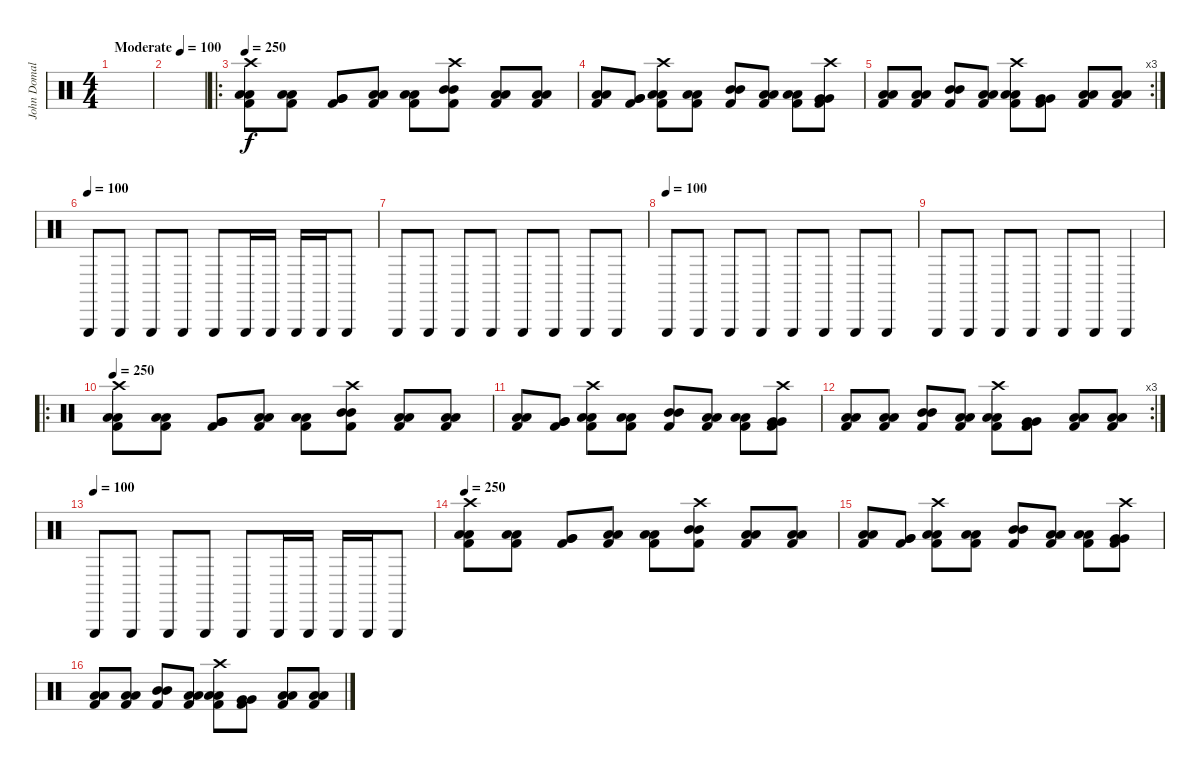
\track ("John Domalayan" "John Domal") {instrument percussion}
\staff {score}
\articulation defaults
\ts (4 4)
\tempo (100 "Moderate")
\clef neutral
\ks c
|
|
\ro
\tempo 250
("Crash high (hit)" "Low Floor Tom (hit)" "Low Floor Tom (hit)" "Kick (hit) 2").8 ("Low Floor Tom (hit)" "Low Floor Tom (hit)" "Kick (hit) 2").8 ("Very Low Tom (hit)" "Very Low Tom (hit)" "Kick (hit) 2").8 ("Low Tom (hit)" "Low Tom (hit)" "Kick (hit) 2").8 ("Low Tom (hit)" "Low Tom (hit)" "Kick (hit) 2").8 ("Crash high (hit)" "Mid Tom (hit)" "Mid Tom (hit)" "Kick (hit) 2").8 ("Low Floor Tom (hit)" "Low Floor Tom (hit)" "Kick (hit) 2").8 ("Low Floor Tom (hit)" "Low Floor Tom (hit)" "Kick (hit) 2").8 |
("Low Floor Tom (hit)" "Low Floor Tom (hit)" "Kick (hit) 2").8 ("Very Low Tom (hit)" "Very Low Tom (hit)" "Kick (hit) 2").8 ("Crash high (hit)" "Low Tom (hit)" "Low Tom (hit)" "Kick (hit) 2").8 ("Low Tom (hit)" "Low Tom (hit)" "Kick (hit) 2").8 ("Mid Tom (hit)" "Mid Tom (hit)" "Kick (hit) 2").8 ("Low Floor Tom (hit)" "Low Floor Tom (hit)" "Kick (hit) 2").8 ("Low Floor Tom (hit)" "Low Floor Tom (hit)" "Kick (hit) 2").8 ("Crash high (hit)" "Very Low Tom (hit)" "Very Low Tom (hit)" "Kick (hit) 2").8 |
\rc 3
("Low Tom (hit)" "Low Tom (hit)" "Kick (hit) 2").8 ("Low Tom (hit)" "Low Tom (hit)" "Kick (hit) 2").8 ("Mid Tom (hit)" "Mid Tom (hit)" "Kick (hit) 2").8 ("Low Floor Tom (hit)" "Low Floor Tom (hit)" "Kick (hit) 2").8 ("Crash high (hit)" "Low Floor Tom (hit)" "Low Floor Tom (hit)" "Kick (hit) 2").8 ("Very Low Tom (hit)" "Very Low Tom (hit)" "Kick (hit) 2").8 ("Low Tom (hit)" "Low Tom (hit)" "Kick (hit) 2").8 ("Low Tom (hit)" "Low Tom (hit)" "Kick (hit) 2").8 |
\tempo (100)
"Triangle (hit)".8 "Triangle (hit)".8 "Triangle (hit)".8 "Triangle (hit)".8 "Triangle (hit)".8 "Triangle (hit)".16 "Triangle (hit)".16 "Triangle (hit)".16 "Triangle (hit)".16 "Triangle (hit)".8 |
"Triangle (hit)".8 "Triangle (hit)".8 "Triangle (hit)".8 "Triangle (hit)".8 "Triangle (hit)".8 "Triangle (hit)".8 "Triangle (hit)".8 "Triangle (hit)".8 |
\tempo (100)
"Triangle (hit)".8 "Triangle (hit)".8 "Triangle (hit)".8 "Triangle (hit)".8 "Triangle (hit)".8 "Triangle (hit)".8 "Triangle (hit)".8 "Triangle (hit)".8 |
"Triangle (hit)".8 "Triangle (hit)".8 "Triangle (hit)".8 "Triangle (hit)".8 "Triangle (hit)".8 "Triangle (hit)".8 "Triangle (hit)".4 |
\ro
\tempo 250
("Crash high (hit)" "Low Floor Tom (hit)" "Low Floor Tom (hit)" "Kick (hit) 2").8 ("Low Floor Tom (hit)" "Low Floor Tom (hit)" "Kick (hit) 2").8 ("Very Low Tom (hit)" "Very Low Tom (hit)" "Kick (hit) 2").8 ("Low Tom (hit)" "Low Tom (hit)" "Kick (hit) 2").8 ("Low Tom (hit)" "Low Tom (hit)" "Kick (hit) 2").8 ("Crash high (hit)" "Mid Tom (hit)" "Mid Tom (hit)" "Kick (hit) 2").8 ("Low Floor Tom (hit)" "Low Floor Tom (hit)" "Kick (hit) 2").8 ("Low Floor Tom (hit)" "Low Floor Tom (hit)" "Kick (hit) 2").8 |
("Low Floor Tom (hit)" "Low Floor Tom (hit)" "Kick (hit) 2").8 ("Very Low Tom (hit)" "Very Low Tom (hit)" "Kick (hit) 2").8 ("Crash high (hit)" "Low Tom (hit)" "Low Tom (hit)" "Kick (hit) 2").8 ("Low Tom (hit)" "Low Tom (hit)" "Kick (hit) 2").8 ("Mid Tom (hit)" "Mid Tom (hit)" "Kick (hit) 2").8 ("Low Floor Tom (hit)" "Low Floor Tom (hit)" "Kick (hit) 2").8 ("Low Floor Tom (hit)" "Low Floor Tom (hit)" "Kick (hit) 2").8 ("Crash high (hit)" "Very Low Tom (hit)" "Very Low Tom (hit)" "Kick (hit) 2").8 |
\rc 3
("Low Tom (hit)" "Low Tom (hit)" "Kick (hit) 2").8 ("Low Tom (hit)" "Low Tom (hit)" "Kick (hit) 2").8 ("Mid Tom (hit)" "Mid Tom (hit)" "Kick (hit) 2").8 ("Low Floor Tom (hit)" "Low Floor Tom (hit)" "Kick (hit) 2").8 ("Crash high (hit)" "Low Floor Tom (hit)" "Low Floor Tom (hit)" "Kick (hit) 2").8 ("Very Low Tom (hit)" "Very Low Tom (hit)" "Kick (hit) 2").8 ("Low Tom (hit)" "Low Tom (hit)" "Kick (hit) 2").8 ("Low Tom (hit)" "Low Tom (hit)" "Kick (hit) 2").8 |
\tempo (100)
"Triangle (hit)".8 "Triangle (hit)".8 "Triangle (hit)".8 "Triangle (hit)".8 "Triangle (hit)".8 "Triangle (hit)".16 "Triangle (hit)".16 "Triangle (hit)".16 "Triangle (hit)".16 "Triangle (hit)".8 |
\tempo 250
("Crash high (hit)" "Low Floor Tom (hit)" "Low Floor Tom (hit)" "Kick (hit) 2").8 ("Low Floor Tom (hit)" "Low Floor Tom (hit)" "Kick (hit) 2").8 ("Very Low Tom (hit)" "Very Low Tom (hit)" "Kick (hit) 2").8 ("Low Tom (hit)" "Low Tom (hit)" "Kick (hit) 2").8 ("Low Tom (hit)" "Low Tom (hit)" "Kick (hit) 2").8 ("Crash high (hit)" "Mid Tom (hit)" "Mid Tom (hit)" "Kick (hit) 2").8 ("Low Floor Tom (hit)" "Low Floor Tom (hit)" "Kick (hit) 2").8 ("Low Floor Tom (hit)" "Low Floor Tom (hit)" "Kick (hit) 2").8 |
("Low Floor Tom (hit)" "Low Floor Tom (hit)" "Kick (hit) 2").8 ("Very Low Tom (hit)" "Very Low Tom (hit)" "Kick (hit) 2").8 ("Crash high (hit)" "Low Tom (hit)" "Low Tom (hit)" "Kick (hit) 2").8 ("Low Tom (hit)" "Low Tom (hit)" "Kick (hit) 2").8 ("Mid Tom (hit)" "Mid Tom (hit)" "Kick (hit) 2").8 ("Low Floor Tom (hit)" "Low Floor Tom (hit)" "Kick (hit) 2").8 ("Low Floor Tom (hit)" "Low Floor Tom (hit)" "Kick (hit) 2").8 ("Crash high (hit)" "Very Low Tom (hit)" "Very Low Tom (hit)" "Kick (hit) 2").8 |
("Low Tom (hit)" "Low Tom (hit)" "Kick (hit) 2").8 ("Low Tom (hit)" "Low Tom (hit)" "Kick (hit) 2").8 ("Mid Tom (hit)" "Mid Tom (hit)" "Kick (hit) 2").8 ("Low Floor Tom (hit)" "Low Floor Tom (hit)" "Kick (hit) 2").8 ("Crash high (hit)" "Low Floor Tom (hit)" "Low Floor Tom (hit)" "Kick (hit) 2").8 ("Very Low Tom (hit)" "Very Low Tom (hit)" "Kick (hit) 2").8 ("Low Tom (hit)" "Low Tom (hit)" "Kick (hit) 2").8 ("Low Tom (hit)" "Low Tom (hit)" "Kick (hit) 2").8
